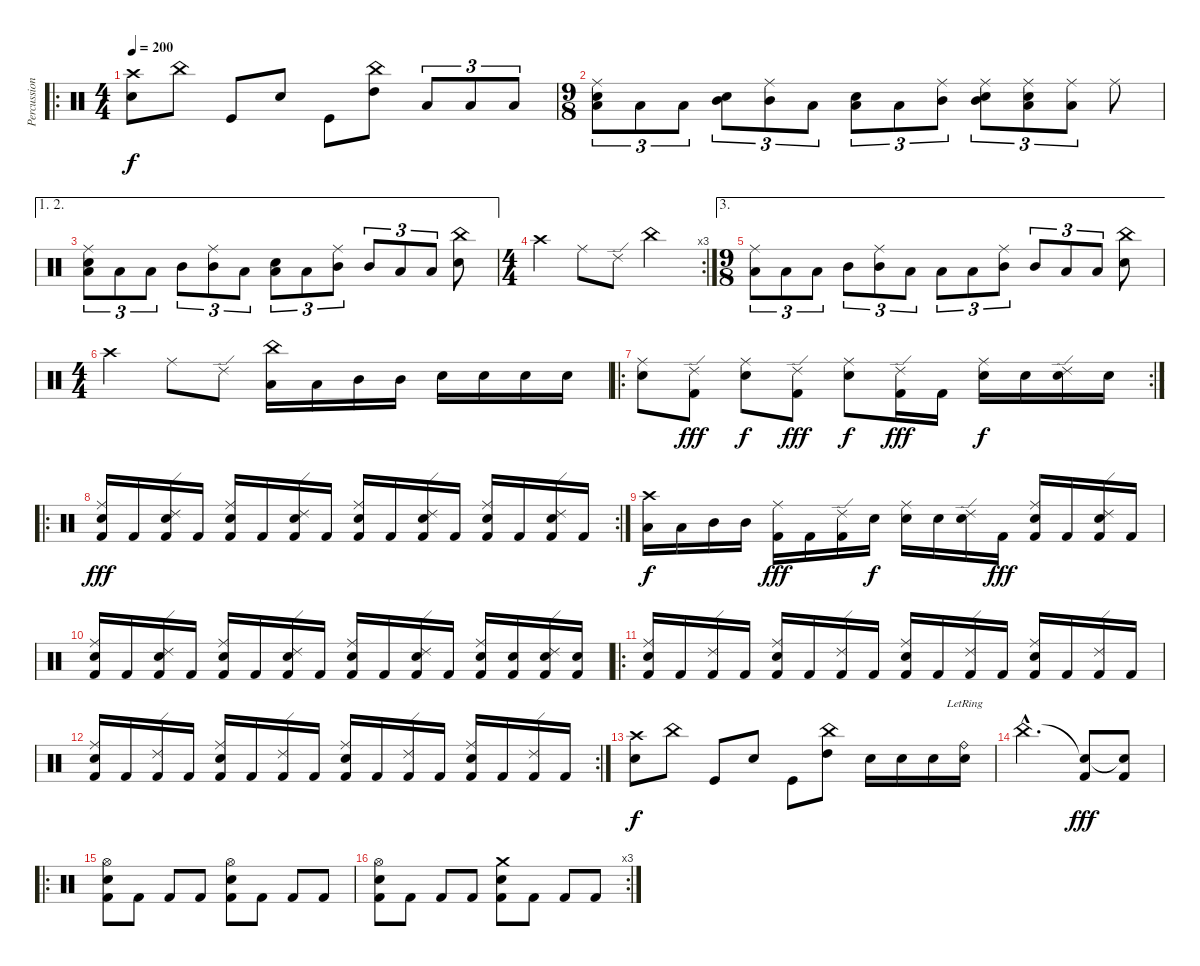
\track ("Percussion" "Percussion") {instrument percussion}
\staff {score}
\articulation defaults
\ro
\ts (4 4)
\tempo 200
\clef neutral
\ks c
("Crash high (hit)" "Electric Snare (hit)").8{dy f} "China (hit)".8 "Kick (hit)".8 "Electric Snare (hit)".8 "Kick (hit)".8 ("China (hit)" "High Tom (hit)").8 "Low Tom (hit)".8{tu (3 2)} "Low Tom (hit)".8{tu (3 2)} "Low Tom (hit)".8{tu (3 2)} |
\ts (9 8)
("Ride (middle)" "Electric Snare (hit)" "Low Tom (hit)").8{tu (3 2)} "Low Tom (hit)".8{tu (3 2)} "Low Tom (hit)".8{tu (3 2)} ("Electric Snare (hit)" "Mid Tom (hit)").8{tu (3 2)} ("Ride (middle)" "Mid Tom (hit)").8{tu (3 2)} "Low Tom (hit)".8{tu (3 2)} ("Electric Snare (hit)" "Low Tom (hit)").8{tu (3 2)} "Low Tom (hit)".8{tu (3 2)} ("Ride (middle)" "Mid Tom (hit)").8{tu (3 2)} ("Ride (middle)" "Electric Snare (hit)" "Mid Tom (hit)").8{tu (3 2)} ("Ride (middle)" "Electric Snare (hit)" "Low Tom (hit)").8{tu (3 2)} ("Ride (middle)" "Low Tom (hit)").8{tu (3 2)} "Ride (middle)".8 |
\ae (1 2)
("Ride (middle)" "Electric Snare (hit)" "Low Tom (hit)").8{tu (3 2)} "Low Tom (hit)".8{tu (3 2)} "Low Tom (hit)".8{tu (3 2)} "Mid Tom (hit)".8{tu (3 2)} ("Ride (middle)" "Mid Tom (hit)").8{tu (3 2)} "Low Tom (hit)".8{tu (3 2)} ("Electric Snare (hit)" "Low Tom (hit)").8{tu (3 2)} "Low Tom (hit)".8{tu (3 2)} ("Ride (middle)" "Mid Tom (hit)").8{tu (3 2)} "Mid Tom (hit)".8{tu (3 2)} "Low Tom (hit)".8{tu (3 2)} "Low Tom (hit)".8{tu (3 2)} ("China (hit)" "Electric Snare (hit)").8 |
\rc 3
\ts (4 4)
"Crash high (hit)".4 "Ride (middle)".8 "Ride (edge) 2".8 "China (hit)".2 |
\ae 3
\ts (9 8)
("Ride (middle)" "Low Tom (hit)").8{tu (3 2)} "Low Tom (hit)".8{tu (3 2)} "Low Tom (hit)".8{tu (3 2)} "Mid Tom (hit)".8{tu (3 2)} ("Ride (middle)" "Mid Tom (hit)").8{tu (3 2)} "Low Tom (hit)".8{tu (3 2)} "Low Tom (hit)".8{tu (3 2)} "Low Tom (hit)".8{tu (3 2)} ("Ride (middle)" "Mid Tom (hit)").8{tu (3 2)} "Mid Tom (hit)".8{tu (3 2)} "Low Tom (hit)".8{tu (3 2)} "Low Tom (hit)".8{tu (3 2)} ("China (hit)" "Electric Snare (hit)").8 |
\ts (4 4)
"Crash high (hit)".4 "Ride (middle)".8 "Ride (edge) 2".8 ("China (hit)" "Low Tom (hit)").16 "Low Tom (hit)".16 "Mid Tom (hit)".16 "Mid Tom (hit)".16 "Electric Snare (hit)".16 "Electric Snare (hit)".16 "Electric Snare (hit)".16 "Electric Snare (hit)".16 |
\ro
\rc 2
("Ride (middle)" "Electric Snare (hit)").8 ("Ride (edge) 2" "Kick (hit) 2").8{dy fff} ("Ride (middle)" "Electric Snare (hit)").8{dy f} ("Ride (edge) 2" "Kick (hit) 2").8{dy fff} ("Ride (middle)" "Electric Snare (hit)").8{dy f} ("Ride (edge) 2" "Kick (hit) 2").16{dy fff} "Kick (hit) 2".16 ("Ride (middle)" "Electric Snare (hit)").16{dy f} "Electric Snare (hit)".16 ("Ride (edge) 2" "Electric Snare (hit)").16 "Electric Snare (hit)".16 |
\ro
\rc 2
("Ride (middle)" "Electric Snare (hit)" "Kick (hit) 2").16{dy fff} "Kick (hit) 2".16 ("Ride (edge) 2" "Electric Snare (hit)" "Kick (hit) 2").16 "Kick (hit) 2".16 ("Ride (middle)" "Electric Snare (hit)" "Kick (hit) 2").16 "Kick (hit) 2".16 ("Ride (edge) 2" "Electric Snare (hit)" "Kick (hit) 2").16 "Kick (hit) 2".16 ("Ride (middle)" "Electric Snare (hit)" "Kick (hit) 2").16 "Kick (hit) 2".16 ("Ride (edge) 2" "Electric Snare (hit)" "Kick (hit) 2").16 "Kick (hit) 2".16 ("Ride (middle)" "Electric Snare (hit)" "Kick (hit) 2").16 "Kick (hit) 2".16 ("Ride (edge) 2" "Electric Snare (hit)" "Kick (hit) 2").16 "Kick (hit) 2".16 |
("Crash high (hit)" "Low Tom (hit)").16{dy f} "Low Tom (hit)".16 "Mid Tom (hit)".16 "Mid Tom (hit)".16 ("Ride (middle)" "Kick (hit) 2").16{dy fff} "Kick (hit) 2".16 ("Ride (edge) 2" "Kick (hit) 2").16 "Electric Snare (hit)".16{dy f} ("Ride (middle)" "Electric Snare (hit)").16 "Electric Snare (hit)".16 ("Ride (edge) 2" "Electric Snare (hit)").16 "Kick (hit) 2".16{dy fff} ("Ride (middle)" "Electric Snare (hit)" "Kick (hit) 2").16 "Kick (hit) 2".16 ("Ride (edge) 2" "Electric Snare (hit)" "Kick (hit) 2").16 "Kick (hit) 2".16 |
("Ride (middle)" "Electric Snare (hit)" "Kick (hit) 2").16 "Kick (hit) 2".16 ("Ride (edge) 2" "Electric Snare (hit)" "Kick (hit) 2").16 "Kick (hit) 2".16 ("Ride (middle)" "Electric Snare (hit)" "Kick (hit) 2").16 "Kick (hit) 2".16 ("Ride (edge) 2" "Electric Snare (hit)" "Kick (hit) 2").16 "Kick (hit) 2".16 ("Ride (middle)" "Electric Snare (hit)" "Kick (hit) 2").16 "Kick (hit) 2".16 ("Ride (edge) 2" "Electric Snare (hit)" "Kick (hit) 2").16 "Kick (hit) 2".16 ("Ride (middle)" "Electric Snare (hit)" "Kick (hit) 2").16 ("Electric Snare (hit)" "Kick (hit) 2").16 ("Ride (edge) 2" "Electric Snare (hit)" "Kick (hit) 2").16 ("Electric Snare (hit)" "Kick (hit) 2").16 |
\ro
("Ride (middle)" "Electric Snare (hit)" "Kick (hit) 2").16 "Kick (hit) 2".16 ("Ride (edge) 2" "Kick (hit) 2").16 "Kick (hit) 2".16 ("Ride (middle)" "Electric Snare (hit)" "Kick (hit) 2").16 "Kick (hit) 2".16 ("Ride (edge) 2" "Kick (hit) 2").16 "Kick (hit) 2".16 ("Ride (middle)" "Electric Snare (hit)" "Kick (hit) 2").16 "Kick (hit) 2".16 ("Ride (edge) 2" "Kick (hit) 2").16 "Kick (hit) 2".16 ("Ride (middle)" "Electric Snare (hit)" "Kick (hit) 2").16 "Kick (hit) 2".16 ("Ride (edge) 2" "Kick (hit) 2").16 "Kick (hit) 2".16 |
\rc 2
("Ride (middle)" "Electric Snare (hit)" "Kick (hit) 2").16 "Kick (hit) 2".16 ("Ride (edge) 2" "Kick (hit) 2").16 "Kick (hit) 2".16 ("Ride (middle)" "Electric Snare (hit)" "Kick (hit) 2").16 "Kick (hit) 2".16 ("Ride (edge) 2" "Kick (hit) 2").16 "Kick (hit) 2".16 ("Ride (middle)" "Electric Snare (hit)" "Kick (hit) 2").16 "Kick (hit) 2".16 ("Ride (edge) 2" "Kick (hit) 2").16 "Kick (hit) 2".16 ("Ride (middle)" "Electric Snare (hit)" "Kick (hit) 2").16 "Kick (hit) 2".16 ("Ride (edge) 2" "Kick (hit) 2").16 "Kick (hit) 2".16 |
("Crash high (hit)" "Electric Snare (hit)").8{dy f} "China (hit)".8 "Kick (hit)".8 "Electric Snare (hit)".8 "Kick (hit)".8 ("China (hit)" "High Tom (hit)").8 "Electric Snare (hit)".16 "Electric Snare (hit)".16 "Electric Snare (hit)".16 ("Ride (bell)"{lr} "Electric Snare (hit)").16 |
"China (hit)"{hac}.2{d} ("Snare (hit)"{t} "Kick (hit) 2").8{dy fff} ("Snare (hit)"{t} "Kick (hit) 2").8 |
\ro
("Hi-Hat (open)" "Electric Snare (hit)" "Kick (hit) 2").8 "Kick (hit) 2".8 "Kick (hit) 2".8 "Kick (hit) 2".8 ("Hi-Hat (open)" "Electric Snare (hit)" "Kick (hit) 2").8 "Kick (hit) 2".8 "Kick (hit) 2".8 "Kick (hit) 2".8 |
\rc 3
("Hi-Hat (open)" "Electric Snare (hit)" "Kick (hit) 2").8 "Kick (hit) 2".8 "Kick (hit) 2".8 "Kick (hit) 2".8 ("Crash medium (hit)" "Electric Snare (hit)" "Kick (hit) 2").8 "Kick (hit) 2".8 "Kick (hit) 2".8 "Kick (hit) 2".8
